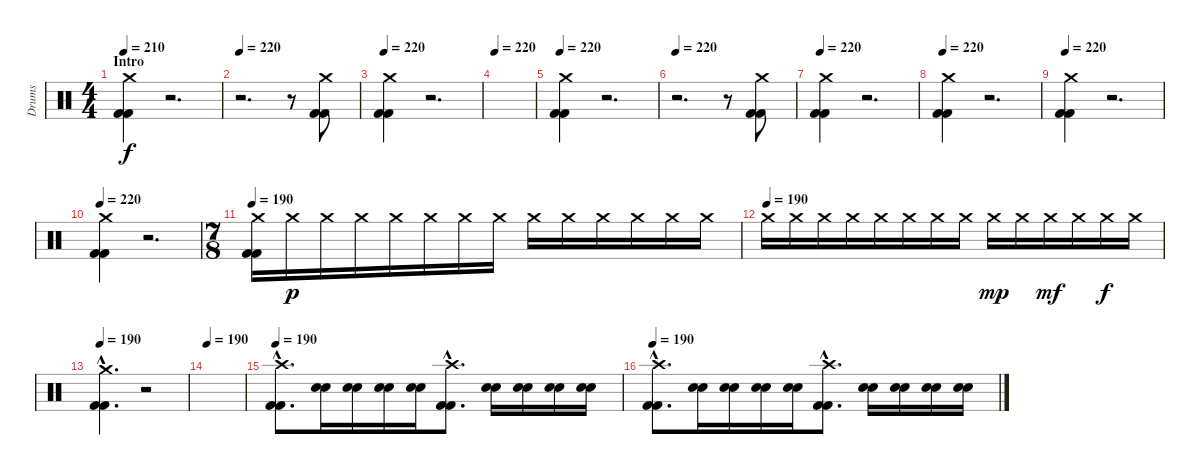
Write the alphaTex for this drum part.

\track ("Drums" "Drums") {instrument percussion}
\staff {score}
\articulation defaults
\ts (4 4)
\section ("" "Intro")
\tempo 210
\tempo 220
\tempo 210
\clef neutral
\ks c
("Crash medium (hit)" "Kick (hit) 2" "Kick (hit) 2").4{dy f} r.2{d} |
\tempo 220
r.2{d} r.8 ("Crash medium (hit)" "Kick (hit) 2" "Kick (hit) 2").8 |
\tempo 220
("Crash medium (hit)" "Kick (hit) 2" "Kick (hit) 2").4 r.2{d} |
\tempo 220
|
\tempo 220
("Crash medium (hit)" "Kick (hit) 2" "Kick (hit) 2").4 r.2{d} |
\tempo 220
r.2{d} r.8 ("Crash medium (hit)" "Kick (hit) 2" "Kick (hit) 2").8 |
\tempo 220
("Crash medium (hit)" "Kick (hit) 2" "Kick (hit) 2").4 r.2{d} |
\tempo 220
("Crash medium (hit)" "Kick (hit) 2" "Kick (hit) 2").4 r.2{d} |
\tempo 220
("Crash medium (hit)" "Kick (hit) 2" "Kick (hit) 2").4 r.2{d} |
\tempo 220
("Crash medium (hit)" "Kick (hit) 2" "Kick (hit) 2").4 r.2{d} |
\ts (7 8)
\tempo 190
("Crash medium (hit)" "Kick (hit) 2" "Kick (hit) 2").16 "Crash medium (hit)".16{dy p} "Crash medium (hit)".16 "Crash medium (hit)".16 "Crash medium (hit)".16 "Crash medium (hit)".16 "Crash medium (hit)".16 "Crash medium (hit)".16 "Crash medium (hit)".16 "Crash medium (hit)".16 "Crash medium (hit)".16 "Crash medium (hit)".16 "Crash medium (hit)".16 "Crash medium (hit)".16 |
\tempo (190)
"Crash medium (hit)".16 "Crash medium (hit)".16 "Crash medium (hit)".16 "Crash medium (hit)".16 "Crash medium (hit)".16 "Crash medium (hit)".16 "Crash medium (hit)".16 "Crash medium (hit)".16 "Crash medium (hit)".16{dy mp} "Crash medium (hit)".16 "Crash medium (hit)".16{dy mf} "Crash medium (hit)".16 "Crash medium (hit)".16{dy f} "Crash medium (hit)".16 |
\tempo 190
("Crash medium (hit)"{hac} "Kick (hit) 2"{hac} "Kick (hit) 2"{hac}).4{d} r.2 |
\tempo 190
|
\tempo 190
("Crash high (hit)"{hac} "Kick (hit) 2"{hac} "Kick (hit) 2"{hac}).8{d} ("Snare (hit) 2" "Snare (hit) 2").16 ("Snare (hit) 2" "Snare (hit) 2").16 ("Snare (hit) 2" "Snare (hit) 2").16 ("Snare (hit) 2" "Snare (hit) 2").16 ("Crash high (hit)"{hac} "Kick (hit) 2"{hac} "Kick (hit) 2"{hac}).8{d} ("Snare (hit) 2" "Snare (hit) 2").16 ("Snare (hit) 2" "Snare (hit) 2").16 ("Snare (hit) 2" "Snare (hit) 2").16 ("Snare (hit) 2" "Snare (hit) 2").16 |
\tempo 190
("Crash high (hit)"{hac} "Kick (hit) 2"{hac} "Kick (hit) 2"{hac}).8{d} ("Snare (hit) 2" "Snare (hit) 2").16 ("Snare (hit) 2" "Snare (hit) 2").16 ("Snare (hit) 2" "Snare (hit) 2").16 ("Snare (hit) 2" "Snare (hit) 2").16 ("Crash high (hit)"{hac} "Kick (hit) 2"{hac} "Kick (hit) 2"{hac}).8{d} ("Snare (hit) 2" "Snare (hit) 2").16 ("Snare (hit) 2" "Snare (hit) 2").16 ("Snare (hit) 2" "Snare (hit) 2").16 ("Snare (hit) 2" "Snare (hit) 2").16
